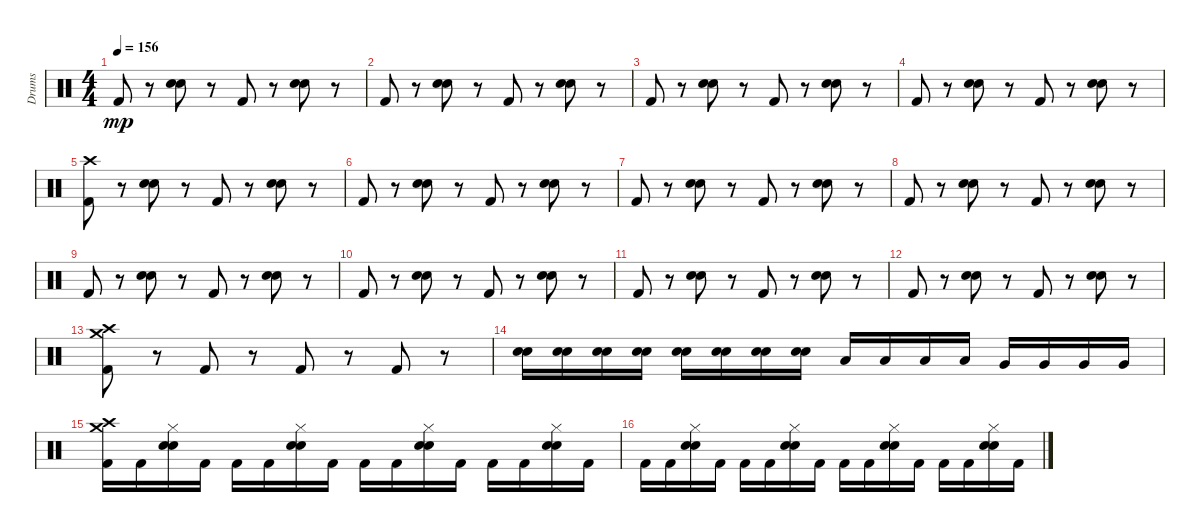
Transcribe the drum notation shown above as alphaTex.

\track ("Drums" "Drums") {instrument percussion}
\staff {score}
\articulation defaults
\ts (4 4)
\tempo 156
\clef neutral
\ks c "Kick (hit) 2".8{dy mp}
r.8 ("Snare (hit) 2" "Electric Snare (hit)").8 r.8 "Kick (hit) 2".8 r.8 ("Snare (hit) 2" "Electric Snare (hit)").8 r.8 |
"Kick (hit) 2".8 r.8 ("Snare (hit) 2" "Electric Snare (hit)").8 r.8 "Kick (hit) 2".8 r.8 ("Snare (hit) 2" "Electric Snare (hit)").8 r.8 |
"Kick (hit) 2".8 r.8 ("Electric Snare (hit)" "Snare (hit) 2").8 r.8 "Kick (hit) 2".8 r.8 ("Electric Snare (hit)" "Snare (hit) 2").8 r.8 |
"Kick (hit) 2".8 r.8 ("Electric Snare (hit)" "Snare (hit) 2").8 r.8 "Kick (hit) 2".8 r.8 ("Snare (hit) 2" "Electric Snare (hit)").8 r.8 |
("Kick (hit) 2" "Crash high (hit)").8 r.8 ("Snare (hit) 2" "Electric Snare (hit)").8 r.8 "Kick (hit) 2".8 r.8 ("Snare (hit) 2" "Electric Snare (hit)").8 r.8 |
"Kick (hit) 2".8 r.8 ("Snare (hit) 2" "Electric Snare (hit)").8 r.8 "Kick (hit) 2".8 r.8 ("Snare (hit) 2" "Electric Snare (hit)").8 r.8 |
"Kick (hit) 2".8 r.8 ("Electric Snare (hit)" "Snare (hit) 2").8 r.8 "Kick (hit) 2".8 r.8 ("Electric Snare (hit)" "Snare (hit) 2").8 r.8 |
"Kick (hit) 2".8 r.8 ("Snare (hit) 2" "Electric Snare (hit)").8 r.8 "Kick (hit) 2".8 r.8 ("Electric Snare (hit)" "Snare (hit) 2").8 r.8 |
"Kick (hit) 2".8 r.8 ("Snare (hit) 2" "Electric Snare (hit)").8 r.8 "Kick (hit) 2".8 r.8 ("Electric Snare (hit)" "Snare (hit) 2").8 r.8 |
"Kick (hit) 2".8 r.8 ("Snare (hit) 2" "Electric Snare (hit)").8 r.8 "Kick (hit) 2".8 r.8 ("Snare (hit) 2" "Electric Snare (hit)").8 r.8 |
"Kick (hit) 2".8 r.8 ("Snare (hit) 2" "Electric Snare (hit)").8 r.8 "Kick (hit) 2".8 r.8 ("Electric Snare (hit)" "Snare (hit) 2").8 r.8 |
"Kick (hit) 2".8 r.8 ("Electric Snare (hit)" "Snare (hit) 2").8 r.8 "Kick (hit) 2".8 r.8 ("Electric Snare (hit)" "Snare (hit) 2").8 r.8 |
("Crash medium (hit)" "Kick (hit) 2" "Crash high (hit)").8 r.8 "Kick (hit) 2".8 r.8 "Kick (hit) 2".8 r.8 "Kick (hit) 2".8 r.8 |
("Snare (hit) 2" "Electric Snare (hit)").16 ("Snare (hit) 2" "Electric Snare (hit)").16 ("Snare (hit) 2" "Electric Snare (hit)").16 ("Electric Snare (hit)" "Snare (hit) 2").16 ("Electric Snare (hit)" "Snare (hit) 2").16 ("Electric Snare (hit)" "Snare (hit) 2").16 ("Snare (hit) 2" "Electric Snare (hit)").16 ("Snare (hit) 2" "Electric Snare (hit)").16 "Low Tom (hit)".16 "Low Tom (hit)".16 "Low Tom (hit)".16 "Low Tom (hit)".16 "Very Low Tom (hit)".16 "Very Low Tom (hit)".16 "Very Low Tom (hit)".16 "Very Low Tom (hit)".16 |
("Crash medium (hit)" "Crash high (hit)" "Kick (hit) 2").16 "Kick (hit) 2".16 ("Hi-Hat (closed)" "Snare (hit) 2" "Electric Snare (hit)").16 "Kick (hit) 2".16 "Kick (hit) 2".16 "Kick (hit) 2".16 ("Snare (hit) 2" "Hi-Hat (closed)" "Electric Snare (hit)").16 "Kick (hit) 2".16 "Kick (hit) 2".16 "Kick (hit) 2".16 ("Snare (hit) 2" "Hi-Hat (closed)" "Electric Snare (hit)").16 "Kick (hit) 2".16 "Kick (hit) 2".16 "Kick (hit) 2".16 ("Electric Snare (hit)" "Hi-Hat (closed)" "Snare (hit) 2").16 "Kick (hit) 2".16 |
"Kick (hit) 2".16 "Kick (hit) 2".16 ("Snare (hit) 2" "Hi-Hat (closed)" "Electric Snare (hit)").16 "Kick (hit) 2".16 "Kick (hit) 2".16 "Kick (hit) 2".16 ("Electric Snare (hit)" "Hi-Hat (closed)" "Snare (hit) 2").16 "Kick (hit) 2".16 "Kick (hit) 2".16 "Kick (hit) 2".16 ("Snare (hit) 2" "Hi-Hat (closed)" "Electric Snare (hit)").16 "Kick (hit) 2".16 "Kick (hit) 2".16 "Kick (hit) 2".16 ("Hi-Hat (closed)" "Snare (hit) 2" "Electric Snare (hit)").16 "Kick (hit) 2".16
